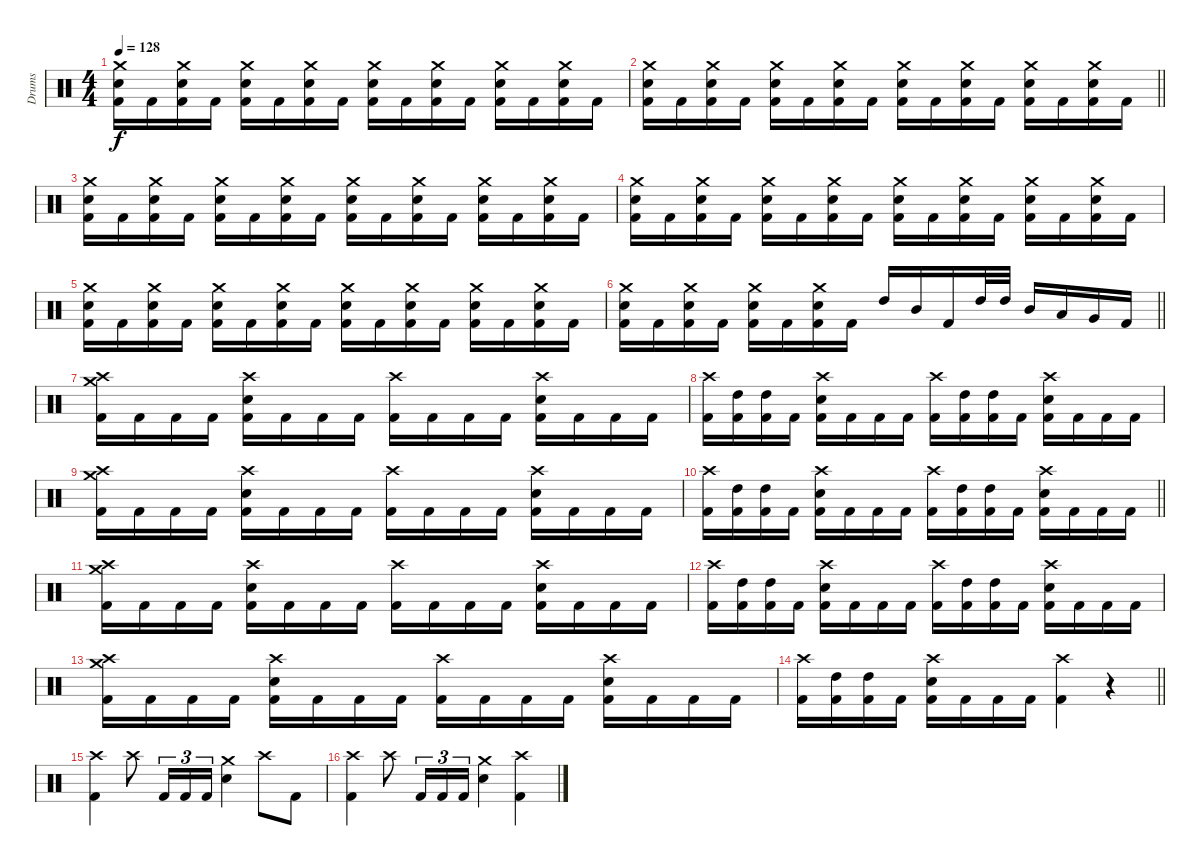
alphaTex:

\track ("Drums" "Drums") {instrument percussion}
\staff {score}
\articulation defaults
\ts (4 4)
\tempo 128
\clef neutral
\ks c
("Crash medium (hit)" "Electric Snare (hit)" "Kick (hit) 2").16{dy f} "Kick (hit) 2".16 ("Crash medium (hit)" "Electric Snare (hit)" "Kick (hit) 2").16 "Kick (hit) 2".16 ("Crash medium (hit)" "Electric Snare (hit)" "Kick (hit) 2").16 "Kick (hit) 2".16 ("Crash medium (hit)" "Electric Snare (hit)" "Kick (hit) 2").16 "Kick (hit) 2".16 ("Crash medium (hit)" "Electric Snare (hit)" "Kick (hit) 2").16 "Kick (hit) 2".16 ("Crash medium (hit)" "Electric Snare (hit)" "Kick (hit) 2").16 "Kick (hit) 2".16 ("Crash medium (hit)" "Electric Snare (hit)" "Kick (hit) 2").16 "Kick (hit) 2".16 ("Crash medium (hit)" "Electric Snare (hit)" "Kick (hit) 2").16 "Kick (hit) 2".16 |
\barLineRight lightlight
("Crash medium (hit)" "Electric Snare (hit)" "Kick (hit) 2").16 "Kick (hit) 2".16 ("Crash medium (hit)" "Electric Snare (hit)" "Kick (hit) 2").16 "Kick (hit) 2".16 ("Crash medium (hit)" "Electric Snare (hit)" "Kick (hit) 2").16 "Kick (hit) 2".16 ("Crash medium (hit)" "Electric Snare (hit)" "Kick (hit) 2").16 "Kick (hit) 2".16 ("Crash medium (hit)" "Electric Snare (hit)" "Kick (hit) 2").16 "Kick (hit) 2".16 ("Crash medium (hit)" "Electric Snare (hit)" "Kick (hit) 2").16 "Kick (hit) 2".16 ("Crash medium (hit)" "Electric Snare (hit)" "Kick (hit) 2").16 "Kick (hit) 2".16 ("Crash medium (hit)" "Electric Snare (hit)" "Kick (hit) 2").16 "Kick (hit) 2".16 |
("Crash medium (hit)" "Electric Snare (hit)" "Kick (hit) 2").16 "Kick (hit) 2".16 ("Crash medium (hit)" "Electric Snare (hit)" "Kick (hit) 2").16 "Kick (hit) 2".16 ("Crash medium (hit)" "Electric Snare (hit)" "Kick (hit) 2").16 "Kick (hit) 2".16 ("Crash medium (hit)" "Electric Snare (hit)" "Kick (hit) 2").16 "Kick (hit) 2".16 ("Crash medium (hit)" "Electric Snare (hit)" "Kick (hit) 2").16 "Kick (hit) 2".16 ("Crash medium (hit)" "Electric Snare (hit)" "Kick (hit) 2").16 "Kick (hit) 2".16 ("Crash medium (hit)" "Electric Snare (hit)" "Kick (hit) 2").16 "Kick (hit) 2".16 ("Crash medium (hit)" "Electric Snare (hit)" "Kick (hit) 2").16 "Kick (hit) 2".16 |
("Crash medium (hit)" "Electric Snare (hit)" "Kick (hit) 2").16 "Kick (hit) 2".16 ("Crash medium (hit)" "Electric Snare (hit)" "Kick (hit) 2").16 "Kick (hit) 2".16 ("Crash medium (hit)" "Electric Snare (hit)" "Kick (hit) 2").16 "Kick (hit) 2".16 ("Crash medium (hit)" "Electric Snare (hit)" "Kick (hit) 2").16 "Kick (hit) 2".16 ("Crash medium (hit)" "Electric Snare (hit)" "Kick (hit) 2").16 "Kick (hit) 2".16 ("Crash medium (hit)" "Electric Snare (hit)" "Kick (hit) 2").16 "Kick (hit) 2".16 ("Crash medium (hit)" "Electric Snare (hit)" "Kick (hit) 2").16 "Kick (hit) 2".16 ("Crash medium (hit)" "Electric Snare (hit)" "Kick (hit) 2").16 "Kick (hit) 2".16 |
("Crash medium (hit)" "Electric Snare (hit)" "Kick (hit) 2").16 "Kick (hit) 2".16 ("Crash medium (hit)" "Electric Snare (hit)" "Kick (hit) 2").16 "Kick (hit) 2".16 ("Crash medium (hit)" "Electric Snare (hit)" "Kick (hit) 2").16 "Kick (hit) 2".16 ("Crash medium (hit)" "Electric Snare (hit)" "Kick (hit) 2").16 "Kick (hit) 2".16 ("Crash medium (hit)" "Electric Snare (hit)" "Kick (hit) 2").16 "Kick (hit) 2".16 ("Crash medium (hit)" "Electric Snare (hit)" "Kick (hit) 2").16 "Kick (hit) 2".16 ("Crash medium (hit)" "Electric Snare (hit)" "Kick (hit) 2").16 "Kick (hit) 2".16 ("Crash medium (hit)" "Electric Snare (hit)" "Kick (hit) 2").16 "Kick (hit) 2".16 |
\barLineRight lightlight
("Crash medium (hit)" "Electric Snare (hit)" "Kick (hit) 2").16 "Kick (hit) 2".16 ("Crash medium (hit)" "Electric Snare (hit)" "Kick (hit) 2").16 "Kick (hit) 2".16 ("Crash medium (hit)" "Electric Snare (hit)" "Kick (hit) 2").16 "Kick (hit) 2".16 ("Crash medium (hit)" "Electric Snare (hit)" "Kick (hit) 2").16 "Kick (hit) 2".16 "High Tom (hit)".16 "Mid Tom (hit)".16 "Kick (hit) 2".16 "High Tom (hit)".32 "High Tom (hit)".32 "Mid Tom (hit)".16 "Low Tom (hit)".16 "Very Low Tom (hit)".16 "Kick (hit) 2".16 |
("Crash high (hit)" "Crash medium (hit)" "Kick (hit) 2").16 "Kick (hit) 2".16 "Kick (hit) 2".16 "Kick (hit) 2".16 ("Crash high (hit)" "Electric Snare (hit)" "Kick (hit) 2").16 "Kick (hit) 2".16 "Kick (hit) 2".16 "Kick (hit) 2".16 ("Crash high (hit)" "Kick (hit) 2").16 "Kick (hit) 2".16 "Kick (hit) 2".16 "Kick (hit) 2".16 ("Crash high (hit)" "Electric Snare (hit)" "Kick (hit) 2").16 "Kick (hit) 2".16 "Kick (hit) 2".16 "Kick (hit) 2".16 |
("Crash high (hit)" "Kick (hit) 2").16 ("High Tom (hit)" "Kick (hit) 2").16 ("High Tom (hit)" "Kick (hit) 2").16 "Kick (hit) 2".16 ("Crash high (hit)" "Electric Snare (hit)" "Kick (hit) 2").16 "Kick (hit) 2".16 "Kick (hit) 2".16 "Kick (hit) 2".16 ("Crash high (hit)" "Kick (hit) 2").16 ("High Tom (hit)" "Kick (hit) 2").16 ("High Tom (hit)" "Kick (hit) 2").16 "Kick (hit) 2".16 ("Crash high (hit)" "Electric Snare (hit)" "Kick (hit) 2").16 "Kick (hit) 2".16 "Kick (hit) 2".16 "Kick (hit) 2".16 |
("Crash high (hit)" "Crash medium (hit)" "Kick (hit) 2").16 "Kick (hit) 2".16 "Kick (hit) 2".16 "Kick (hit) 2".16 ("Crash high (hit)" "Electric Snare (hit)" "Kick (hit) 2").16 "Kick (hit) 2".16 "Kick (hit) 2".16 "Kick (hit) 2".16 ("Crash high (hit)" "Kick (hit) 2").16 "Kick (hit) 2".16 "Kick (hit) 2".16 "Kick (hit) 2".16 ("Crash high (hit)" "Electric Snare (hit)" "Kick (hit) 2").16 "Kick (hit) 2".16 "Kick (hit) 2".16 "Kick (hit) 2".16 |
\barLineRight lightlight
("Crash high (hit)" "Kick (hit) 2").16 ("High Tom (hit)" "Kick (hit) 2").16 ("High Tom (hit)" "Kick (hit) 2").16 "Kick (hit) 2".16 ("Crash high (hit)" "Electric Snare (hit)" "Kick (hit) 2").16 "Kick (hit) 2".16 "Kick (hit) 2".16 "Kick (hit) 2".16 ("Crash high (hit)" "Kick (hit) 2").16 ("High Tom (hit)" "Kick (hit) 2").16 ("High Tom (hit)" "Kick (hit) 2").16 "Kick (hit) 2".16 ("Crash high (hit)" "Electric Snare (hit)" "Kick (hit) 2").16 "Kick (hit) 2".16 "Kick (hit) 2".16 "Kick (hit) 2".16 |
("Crash high (hit)" "Crash medium (hit)" "Kick (hit) 2").16 "Kick (hit) 2".16 "Kick (hit) 2".16 "Kick (hit) 2".16 ("Crash high (hit)" "Electric Snare (hit)" "Kick (hit) 2").16 "Kick (hit) 2".16 "Kick (hit) 2".16 "Kick (hit) 2".16 ("Crash high (hit)" "Kick (hit) 2").16 "Kick (hit) 2".16 "Kick (hit) 2".16 "Kick (hit) 2".16 ("Crash high (hit)" "Electric Snare (hit)" "Kick (hit) 2").16 "Kick (hit) 2".16 "Kick (hit) 2".16 "Kick (hit) 2".16 |
("Crash high (hit)" "Kick (hit) 2").16 ("High Tom (hit)" "Kick (hit) 2").16 ("High Tom (hit)" "Kick (hit) 2").16 "Kick (hit) 2".16 ("Crash high (hit)" "Electric Snare (hit)" "Kick (hit) 2").16 "Kick (hit) 2".16 "Kick (hit) 2".16 "Kick (hit) 2".16 ("Crash high (hit)" "Kick (hit) 2").16 ("High Tom (hit)" "Kick (hit) 2").16 ("High Tom (hit)" "Kick (hit) 2").16 "Kick (hit) 2".16 ("Crash high (hit)" "Electric Snare (hit)" "Kick (hit) 2").16 "Kick (hit) 2".16 "Kick (hit) 2".16 "Kick (hit) 2".16 |
("Crash high (hit)" "Crash medium (hit)" "Kick (hit) 2").16 "Kick (hit) 2".16 "Kick (hit) 2".16 "Kick (hit) 2".16 ("Crash high (hit)" "Electric Snare (hit)" "Kick (hit) 2").16 "Kick (hit) 2".16 "Kick (hit) 2".16 "Kick (hit) 2".16 ("Crash high (hit)" "Kick (hit) 2").16 "Kick (hit) 2".16 "Kick (hit) 2".16 "Kick (hit) 2".16 ("Crash high (hit)" "Electric Snare (hit)" "Kick (hit) 2").16 "Kick (hit) 2".16 "Kick (hit) 2".16 "Kick (hit) 2".16 |
\barLineRight lightlight
("Crash high (hit)" "Kick (hit) 2").16 ("High Tom (hit)" "Kick (hit) 2").16 ("High Tom (hit)" "Kick (hit) 2").16 "Kick (hit) 2".16 ("Crash high (hit)" "Electric Snare (hit)" "Kick (hit) 2").16 "Kick (hit) 2".16 "Kick (hit) 2".16 "Kick (hit) 2".16 ("Crash high (hit)" "Kick (hit) 2").4 r.4 |
("Crash high (hit)" "Kick (hit) 2").4 "Crash high (hit)".8 "Kick (hit) 2".16{tu (3 2)} "Kick (hit) 2".16{tu (3 2)} "Kick (hit) 2".16{tu (3 2)} ("Crash medium (hit)" "Electric Snare (hit)").4 "Crash high (hit)".8 "Kick (hit) 2".8 |
("Crash high (hit)" "Kick (hit) 2").4 "Crash high (hit)".8 "Kick (hit) 2".16{tu (3 2)} "Kick (hit) 2".16{tu (3 2)} "Kick (hit) 2".16{tu (3 2)} ("Crash medium (hit)" "Electric Snare (hit)").4 ("Crash high (hit)" "Kick (hit) 2").4
